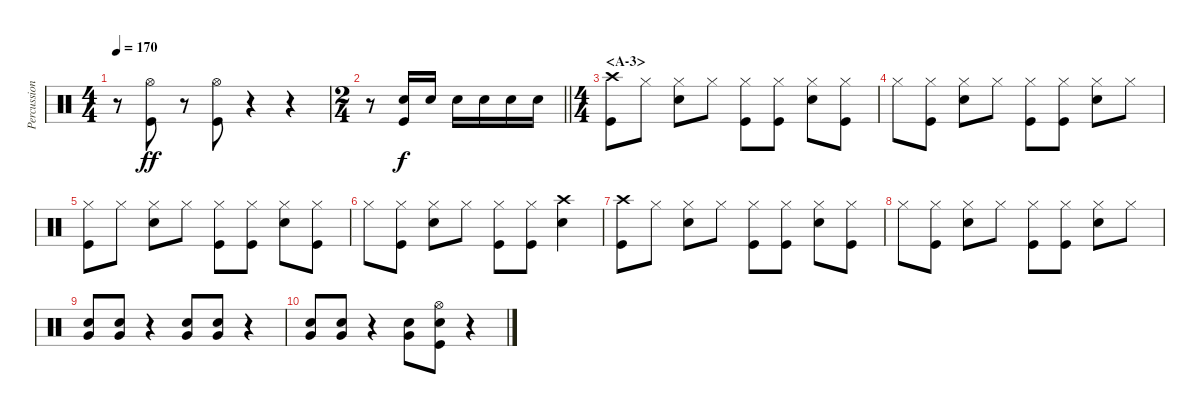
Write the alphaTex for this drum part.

\track ("Percussion" "Percussion") {instrument percussion}
\staff {score}
\articulation defaults
\ts (4 4)
\tempo 170
\clef neutral
\ks c
r.8{dy ff} ("Hi-Hat (open)" "Kick (hit)").8 r.8 ("Hi-Hat (open)" "Kick (hit)").8 r.4 r.4 |
\ts (2 4)
\barLineRight lightlight
r.8 ("Snare (hit) 2" "Kick (hit)").16{dy f} "Snare (hit) 2".16 "Snare (hit) 2".16 "Snare (hit) 2".16 "Snare (hit) 2".16 "Snare (hit) 2".16 |
\ts (4 4)
\section ("" "<A-3>")
("Crash high (hit)" "Kick (hit)").8 "Hi-Hat (closed)".8 ("Hi-Hat (closed)" "Snare (hit) 2").8 "Hi-Hat (closed)".8 ("Hi-Hat (closed)" "Kick (hit)").8 ("Hi-Hat (closed)" "Kick (hit)").8 ("Hi-Hat (closed)" "Snare (hit) 2").8 ("Hi-Hat (closed)" "Kick (hit)").8 |
"Hi-Hat (closed)".8 ("Hi-Hat (closed)" "Kick (hit)").8 ("Hi-Hat (closed)" "Snare (hit) 2").8 "Hi-Hat (closed)".8 ("Hi-Hat (closed)" "Kick (hit)").8 ("Hi-Hat (closed)" "Kick (hit)").8 ("Hi-Hat (closed)" "Snare (hit) 2").8 "Hi-Hat (closed)".8 |
("Hi-Hat (closed)" "Kick (hit)").8 "Hi-Hat (closed)".8 ("Hi-Hat (closed)" "Snare (hit) 2").8 "Hi-Hat (closed)".8 ("Hi-Hat (closed)" "Kick (hit)").8 ("Hi-Hat (closed)" "Kick (hit)").8 ("Hi-Hat (closed)" "Snare (hit) 2").8 ("Hi-Hat (closed)" "Kick (hit)").8 |
"Hi-Hat (closed)".8 ("Hi-Hat (closed)" "Kick (hit)").8 ("Hi-Hat (closed)" "Snare (hit) 2").8 "Hi-Hat (closed)".8 ("Hi-Hat (closed)" "Kick (hit)").8 ("Hi-Hat (closed)" "Kick (hit)").8 ("Crash high (hit)" "Snare (hit) 2").4 |
("Crash high (hit)" "Kick (hit)").8 "Hi-Hat (closed)".8 ("Hi-Hat (closed)" "Snare (hit) 2").8 "Hi-Hat (closed)".8 ("Hi-Hat (closed)" "Kick (hit)").8 ("Hi-Hat (closed)" "Kick (hit)").8 ("Hi-Hat (closed)" "Snare (hit) 2").8 ("Hi-Hat (closed)" "Kick (hit)").8 |
"Hi-Hat (closed)".8 ("Hi-Hat (closed)" "Kick (hit)").8 ("Hi-Hat (closed)" "Snare (hit) 2").8 "Hi-Hat (closed)".8 ("Hi-Hat (closed)" "Kick (hit)").8 ("Hi-Hat (closed)" "Kick (hit)").8 ("Hi-Hat (closed)" "Snare (hit) 2").8 "Hi-Hat (closed)".8 |
("Very Low Tom (hit)" "Snare (hit) 2").8 ("Very Low Tom (hit)" "Snare (hit) 2").8 r.4 ("Very Low Tom (hit)" "Snare (hit) 2").8 ("Very Low Tom (hit)" "Snare (hit) 2").8 r.4 |
("Very Low Tom (hit)" "Snare (hit) 2").8 ("Very Low Tom (hit)" "Snare (hit) 2").8 r.4 ("Very Low Tom (hit)" "Snare (hit) 2").8 ("Hi-Hat (open)" "Kick (hit)" "Snare (hit) 2").8 r.4
